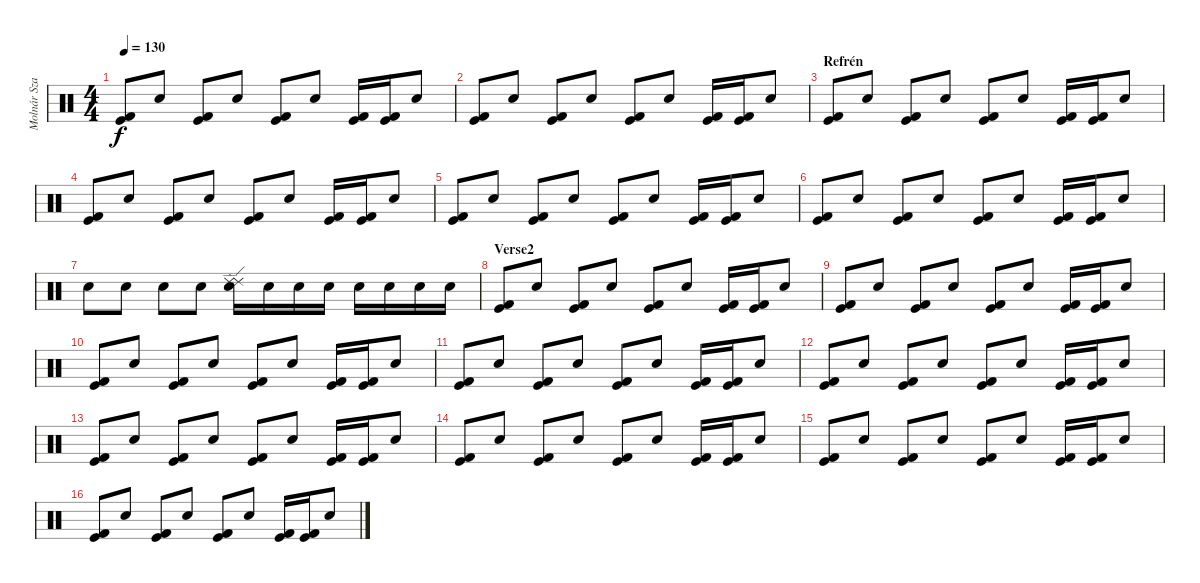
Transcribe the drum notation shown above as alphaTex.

\track ("Molnár Szabolcs" "Molnár Sza") {instrument percussion}
\staff {score}
\articulation defaults
\ts (4 4)
\tempo 130
\clef neutral
\ks c
("Kick (hit)" "Kick (hit) 2").8{dy f} "Snare (hit) 2".8 ("Kick (hit)" "Kick (hit) 2").8 "Snare (hit) 2".8 ("Kick (hit)" "Kick (hit) 2").8 "Snare (hit) 2".8 ("Kick (hit)" "Kick (hit) 2").16 ("Kick (hit)" "Kick (hit) 2").16 "Snare (hit) 2".8 |
("Kick (hit)" "Kick (hit) 2").8 "Snare (hit) 2".8 ("Kick (hit)" "Kick (hit) 2").8 "Snare (hit) 2".8 ("Kick (hit)" "Kick (hit) 2").8 "Snare (hit) 2".8 ("Kick (hit)" "Kick (hit) 2").16 ("Kick (hit)" "Kick (hit) 2").16 "Snare (hit) 2".8 |
\section ("" "Refrén")
("Kick (hit)" "Kick (hit) 2").8 "Snare (hit) 2".8 ("Kick (hit)" "Kick (hit) 2").8 "Snare (hit) 2".8 ("Kick (hit)" "Kick (hit) 2").8 "Snare (hit) 2".8 ("Kick (hit)" "Kick (hit) 2").16 ("Kick (hit)" "Kick (hit) 2").16 "Snare (hit) 2".8 |
("Kick (hit)" "Kick (hit) 2").8 "Snare (hit) 2".8 ("Kick (hit)" "Kick (hit) 2").8 "Snare (hit) 2".8 ("Kick (hit)" "Kick (hit) 2").8 "Snare (hit) 2".8 ("Kick (hit)" "Kick (hit) 2").16 ("Kick (hit)" "Kick (hit) 2").16 "Snare (hit) 2".8 |
("Kick (hit)" "Kick (hit) 2").8 "Snare (hit) 2".8 ("Kick (hit)" "Kick (hit) 2").8 "Snare (hit) 2".8 ("Kick (hit)" "Kick (hit) 2").8 "Snare (hit) 2".8 ("Kick (hit)" "Kick (hit) 2").16 ("Kick (hit)" "Kick (hit) 2").16 "Snare (hit) 2".8 |
("Kick (hit)" "Kick (hit) 2").8 "Snare (hit) 2".8 ("Kick (hit)" "Kick (hit) 2").8 "Snare (hit) 2".8 ("Kick (hit)" "Kick (hit) 2").8 "Snare (hit) 2".8 ("Kick (hit)" "Kick (hit) 2").16 ("Kick (hit)" "Kick (hit) 2").16 "Snare (hit) 2".8 |
"Snare (hit) 2".8 "Snare (hit) 2".8 "Snare (hit) 2".8 "Snare (hit) 2".8 ("Snare (hit) 2" "Ride (edge) 2" "Ride (edge) 2").16 "Snare (hit) 2".16 "Snare (hit) 2".16 "Snare (hit) 2".16 "Snare (hit) 2".16 "Snare (hit) 2".16 "Snare (hit) 2".16 "Snare (hit) 2".16 |
\section ("" "Verse2")
("Kick (hit)" "Kick (hit) 2").8 "Snare (hit) 2".8 ("Kick (hit)" "Kick (hit) 2").8 "Snare (hit) 2".8 ("Kick (hit)" "Kick (hit) 2").8 "Snare (hit) 2".8 ("Kick (hit)" "Kick (hit) 2").16 ("Kick (hit)" "Kick (hit) 2").16 "Snare (hit) 2".8 |
("Kick (hit)" "Kick (hit) 2").8 "Snare (hit) 2".8 ("Kick (hit)" "Kick (hit) 2").8 "Snare (hit) 2".8 ("Kick (hit)" "Kick (hit) 2").8 "Snare (hit) 2".8 ("Kick (hit)" "Kick (hit) 2").16 ("Kick (hit)" "Kick (hit) 2").16 "Snare (hit) 2".8 |
("Kick (hit)" "Kick (hit) 2").8 "Snare (hit) 2".8 ("Kick (hit)" "Kick (hit) 2").8 "Snare (hit) 2".8 ("Kick (hit)" "Kick (hit) 2").8 "Snare (hit) 2".8 ("Kick (hit)" "Kick (hit) 2").16 ("Kick (hit)" "Kick (hit) 2").16 "Snare (hit) 2".8 |
("Kick (hit)" "Kick (hit) 2").8 "Snare (hit) 2".8 ("Kick (hit)" "Kick (hit) 2").8 "Snare (hit) 2".8 ("Kick (hit)" "Kick (hit) 2").8 "Snare (hit) 2".8 ("Kick (hit)" "Kick (hit) 2").16 ("Kick (hit)" "Kick (hit) 2").16 "Snare (hit) 2".8 |
("Kick (hit)" "Kick (hit) 2").8 "Snare (hit) 2".8 ("Kick (hit)" "Kick (hit) 2").8 "Snare (hit) 2".8 ("Kick (hit)" "Kick (hit) 2").8 "Snare (hit) 2".8 ("Kick (hit)" "Kick (hit) 2").16 ("Kick (hit)" "Kick (hit) 2").16 "Snare (hit) 2".8 |
("Kick (hit)" "Kick (hit) 2").8 "Snare (hit) 2".8 ("Kick (hit)" "Kick (hit) 2").8 "Snare (hit) 2".8 ("Kick (hit)" "Kick (hit) 2").8 "Snare (hit) 2".8 ("Kick (hit)" "Kick (hit) 2").16 ("Kick (hit)" "Kick (hit) 2").16 "Snare (hit) 2".8 |
("Kick (hit)" "Kick (hit) 2").8 "Snare (hit) 2".8 ("Kick (hit)" "Kick (hit) 2").8 "Snare (hit) 2".8 ("Kick (hit)" "Kick (hit) 2").8 "Snare (hit) 2".8 ("Kick (hit)" "Kick (hit) 2").16 ("Kick (hit)" "Kick (hit) 2").16 "Snare (hit) 2".8 |
("Kick (hit)" "Kick (hit) 2").8 "Snare (hit) 2".8 ("Kick (hit)" "Kick (hit) 2").8 "Snare (hit) 2".8 ("Kick (hit)" "Kick (hit) 2").8 "Snare (hit) 2".8 ("Kick (hit)" "Kick (hit) 2").16 ("Kick (hit)" "Kick (hit) 2").16 "Snare (hit) 2".8 |
("Kick (hit)" "Kick (hit) 2").8 "Snare (hit) 2".8 ("Kick (hit)" "Kick (hit) 2").8 "Snare (hit) 2".8 ("Kick (hit)" "Kick (hit) 2").8 "Snare (hit) 2".8 ("Kick (hit)" "Kick (hit) 2").16 ("Kick (hit)" "Kick (hit) 2").16 "Snare (hit) 2".8
